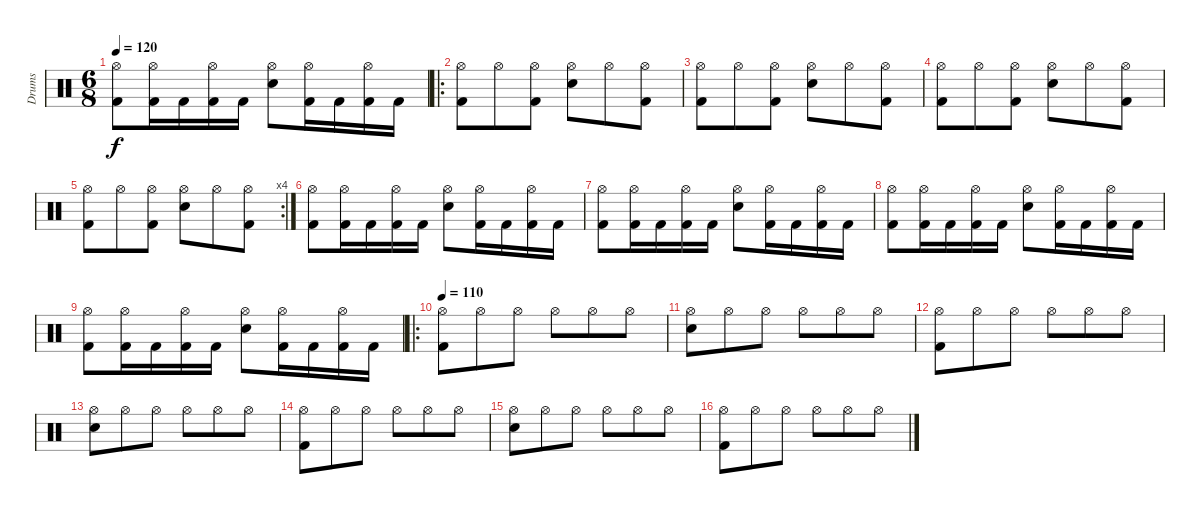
\track ("Drums" "Drums") {instrument percussion}
\staff {score}
\articulation defaults
\ts (6 8)
\tempo 120
\clef neutral
\ks c
("Hi-Hat (open)" "Kick (hit) 2").8{dy f} ("Hi-Hat (open)" "Kick (hit) 2").16 "Kick (hit) 2".16 ("Hi-Hat (open)" "Kick (hit) 2").16 "Kick (hit) 2".16 ("Hi-Hat (open)" "Electric Snare (hit)").8 ("Hi-Hat (open)" "Kick (hit) 2").16 "Kick (hit) 2".16 ("Hi-Hat (open)" "Kick (hit) 2").16 "Kick (hit) 2".16 |
\ro
("Hi-Hat (open)" "Kick (hit) 2").8 "Hi-Hat (open)".8 ("Hi-Hat (open)" "Kick (hit) 2").8 ("Hi-Hat (open)" "Electric Snare (hit)").8 "Hi-Hat (open)".8 ("Hi-Hat (open)" "Kick (hit) 2").8 |
("Hi-Hat (open)" "Kick (hit) 2").8 "Hi-Hat (open)".8 ("Hi-Hat (open)" "Kick (hit) 2").8 ("Hi-Hat (open)" "Electric Snare (hit)").8 "Hi-Hat (open)".8 ("Hi-Hat (open)" "Kick (hit) 2").8 |
("Hi-Hat (open)" "Kick (hit) 2").8 "Hi-Hat (open)".8 ("Hi-Hat (open)" "Kick (hit) 2").8 ("Hi-Hat (open)" "Electric Snare (hit)").8 "Hi-Hat (open)".8 ("Hi-Hat (open)" "Kick (hit) 2").8 |
\rc 4
("Hi-Hat (open)" "Kick (hit) 2").8 "Hi-Hat (open)".8 ("Hi-Hat (open)" "Kick (hit) 2").8 ("Hi-Hat (open)" "Electric Snare (hit)").8 "Hi-Hat (open)".8 ("Hi-Hat (open)" "Kick (hit) 2").8 |
("Hi-Hat (open)" "Kick (hit) 2").8 ("Hi-Hat (open)" "Kick (hit) 2").16 "Kick (hit) 2".16 ("Hi-Hat (open)" "Kick (hit) 2").16 "Kick (hit) 2".16 ("Hi-Hat (open)" "Electric Snare (hit)").8 ("Hi-Hat (open)" "Kick (hit) 2").16 "Kick (hit) 2".16 ("Hi-Hat (open)" "Kick (hit) 2").16 "Kick (hit) 2".16 |
("Hi-Hat (open)" "Kick (hit) 2").8 ("Hi-Hat (open)" "Kick (hit) 2").16 "Kick (hit) 2".16 ("Hi-Hat (open)" "Kick (hit) 2").16 "Kick (hit) 2".16 ("Hi-Hat (open)" "Electric Snare (hit)").8 ("Hi-Hat (open)" "Kick (hit) 2").16 "Kick (hit) 2".16 ("Hi-Hat (open)" "Kick (hit) 2").16 "Kick (hit) 2".16 |
("Hi-Hat (open)" "Kick (hit) 2").8 ("Hi-Hat (open)" "Kick (hit) 2").16 "Kick (hit) 2".16 ("Hi-Hat (open)" "Kick (hit) 2").16 "Kick (hit) 2".16 ("Hi-Hat (open)" "Electric Snare (hit)").8 ("Hi-Hat (open)" "Kick (hit) 2").16 "Kick (hit) 2".16 ("Hi-Hat (open)" "Kick (hit) 2").16 "Kick (hit) 2".16 |
("Hi-Hat (open)" "Kick (hit) 2").8 ("Hi-Hat (open)" "Kick (hit) 2").16 "Kick (hit) 2".16 ("Hi-Hat (open)" "Kick (hit) 2").16 "Kick (hit) 2".16 ("Hi-Hat (open)" "Electric Snare (hit)").8 ("Hi-Hat (open)" "Kick (hit) 2").16 "Kick (hit) 2".16 ("Hi-Hat (open)" "Kick (hit) 2").16 "Kick (hit) 2".16 |
\ro
\tempo 110
("Hi-Hat (open)" "Kick (hit) 2").8{volume 13} "Hi-Hat (open)".8 "Hi-Hat (open)".8 "Hi-Hat (open)".8 "Hi-Hat (open)".8 "Hi-Hat (open)".8 |
("Hi-Hat (open)" "Electric Snare (hit)").8 "Hi-Hat (open)".8 "Hi-Hat (open)".8 "Hi-Hat (open)".8 "Hi-Hat (open)".8 "Hi-Hat (open)".8 |
("Hi-Hat (open)" "Kick (hit) 2").8 "Hi-Hat (open)".8 "Hi-Hat (open)".8 "Hi-Hat (open)".8 "Hi-Hat (open)".8 "Hi-Hat (open)".8 |
("Hi-Hat (open)" "Electric Snare (hit)").8 "Hi-Hat (open)".8 "Hi-Hat (open)".8 "Hi-Hat (open)".8 "Hi-Hat (open)".8 "Hi-Hat (open)".8 |
("Hi-Hat (open)" "Kick (hit) 2").8 "Hi-Hat (open)".8 "Hi-Hat (open)".8 "Hi-Hat (open)".8 "Hi-Hat (open)".8 "Hi-Hat (open)".8 |
("Hi-Hat (open)" "Electric Snare (hit)").8 "Hi-Hat (open)".8 "Hi-Hat (open)".8 "Hi-Hat (open)".8 "Hi-Hat (open)".8 "Hi-Hat (open)".8 |
("Hi-Hat (open)" "Kick (hit) 2").8 "Hi-Hat (open)".8 "Hi-Hat (open)".8 "Hi-Hat (open)".8 "Hi-Hat (open)".8 "Hi-Hat (open)".8
